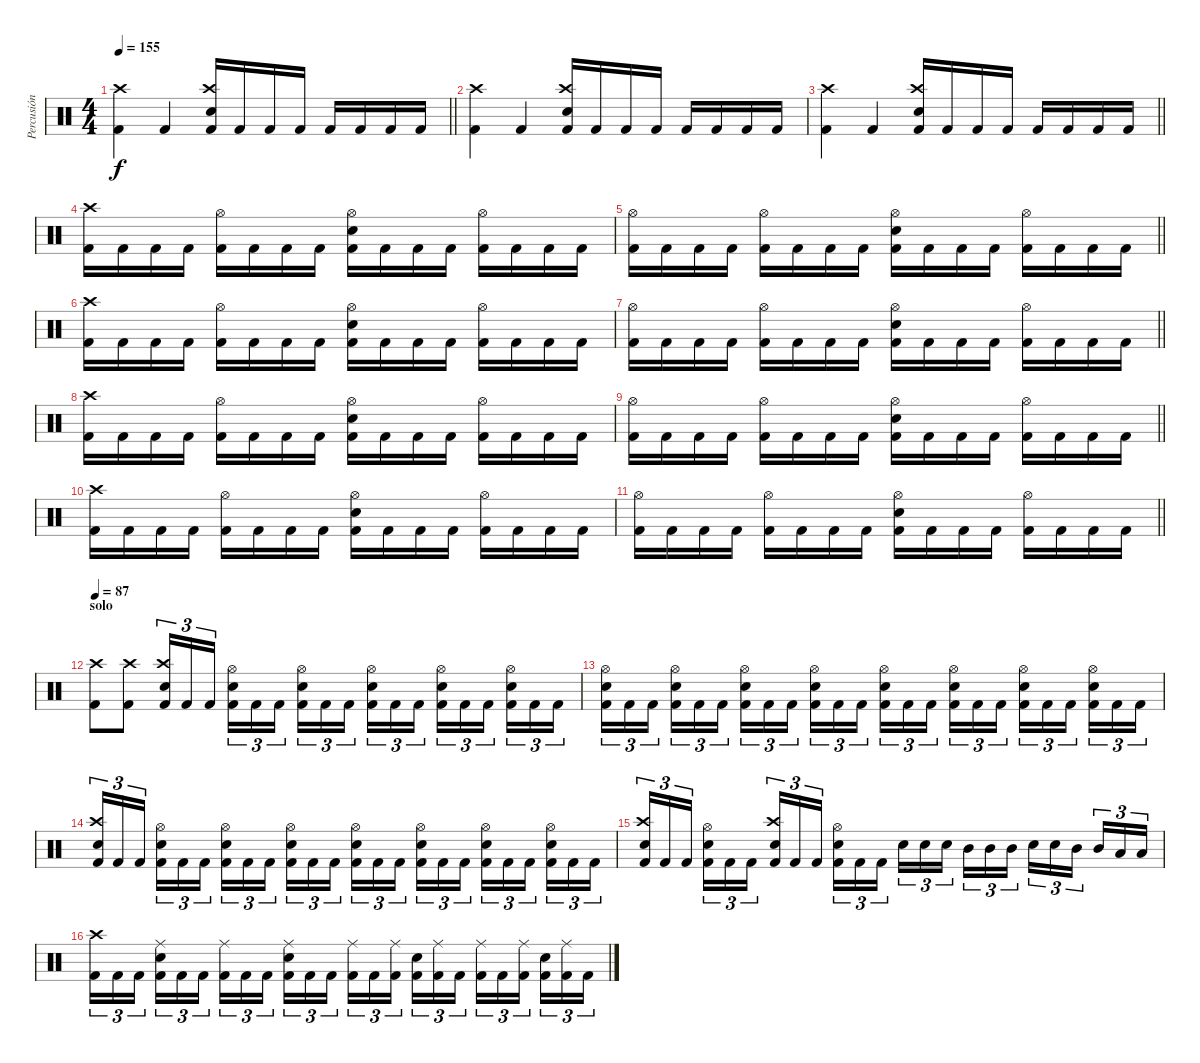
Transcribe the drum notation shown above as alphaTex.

\track ("Percusión" "Percusión") {instrument percussion}
\staff
\articulation defaults
\ts (4 4)
\tempo 155
\clef neutral
\barLineRight lightlight
\ks c
("Kick (hit) 2" "Crash high (hit)").4{dy f} "Kick (hit) 2".4 ("Kick (hit) 2" "Crash high (hit)" "Electric Snare (hit)").16 "Kick (hit) 2".16 "Kick (hit) 2".16 "Kick (hit) 2".16 "Kick (hit) 2".16 "Kick (hit) 2".16 "Kick (hit) 2".16 "Kick (hit) 2".16 |
("Kick (hit) 2" "Crash high (hit)").4 "Kick (hit) 2".4 ("Kick (hit) 2" "Crash high (hit)" "Electric Snare (hit)").16 "Kick (hit) 2".16 "Kick (hit) 2".16 "Kick (hit) 2".16 "Kick (hit) 2".16 "Kick (hit) 2".16 "Kick (hit) 2".16 "Kick (hit) 2".16 |
\barLineRight lightlight
("Kick (hit) 2" "Crash high (hit)").4 "Kick (hit) 2".4 ("Kick (hit) 2" "Crash high (hit)" "Electric Snare (hit)").16 "Kick (hit) 2".16 "Kick (hit) 2".16 "Kick (hit) 2".16 "Kick (hit) 2".16 "Kick (hit) 2".16 "Kick (hit) 2".16 "Kick (hit) 2".16 |
("Kick (hit) 2" "Crash high (hit)").16 "Kick (hit) 2".16 "Kick (hit) 2".16 "Kick (hit) 2".16 ("Kick (hit) 2" "Hi-Hat (open)").16 "Kick (hit) 2".16 "Kick (hit) 2".16 "Kick (hit) 2".16 ("Kick (hit) 2" "Hi-Hat (open)" "Electric Snare (hit)").16 "Kick (hit) 2".16 "Kick (hit) 2".16 "Kick (hit) 2".16 ("Kick (hit) 2" "Hi-Hat (open)").16 "Kick (hit) 2".16 "Kick (hit) 2".16 "Kick (hit) 2".16 |
\barLineRight lightlight
("Kick (hit) 2" "Hi-Hat (open)").16 "Kick (hit) 2".16 "Kick (hit) 2".16 "Kick (hit) 2".16 ("Kick (hit) 2" "Hi-Hat (open)").16 "Kick (hit) 2".16 "Kick (hit) 2".16 "Kick (hit) 2".16 ("Kick (hit) 2" "Hi-Hat (open)" "Electric Snare (hit)").16 "Kick (hit) 2".16 "Kick (hit) 2".16 "Kick (hit) 2".16 ("Kick (hit) 2" "Hi-Hat (open)").16 "Kick (hit) 2".16 "Kick (hit) 2".16 "Kick (hit) 2".16 |
("Kick (hit) 2" "Crash high (hit)").16 "Kick (hit) 2".16 "Kick (hit) 2".16 "Kick (hit) 2".16 ("Kick (hit) 2" "Hi-Hat (open)").16 "Kick (hit) 2".16 "Kick (hit) 2".16 "Kick (hit) 2".16 ("Kick (hit) 2" "Hi-Hat (open)" "Electric Snare (hit)").16 "Kick (hit) 2".16 "Kick (hit) 2".16 "Kick (hit) 2".16 ("Kick (hit) 2" "Hi-Hat (open)").16 "Kick (hit) 2".16 "Kick (hit) 2".16 "Kick (hit) 2".16 |
\barLineRight lightlight
("Kick (hit) 2" "Hi-Hat (open)").16 "Kick (hit) 2".16 "Kick (hit) 2".16 "Kick (hit) 2".16 ("Kick (hit) 2" "Hi-Hat (open)").16 "Kick (hit) 2".16 "Kick (hit) 2".16 "Kick (hit) 2".16 ("Kick (hit) 2" "Hi-Hat (open)" "Electric Snare (hit)").16 "Kick (hit) 2".16 "Kick (hit) 2".16 "Kick (hit) 2".16 ("Kick (hit) 2" "Hi-Hat (open)").16 "Kick (hit) 2".16 "Kick (hit) 2".16 "Kick (hit) 2".16 |
("Kick (hit) 2" "Crash high (hit)").16 "Kick (hit) 2".16 "Kick (hit) 2".16 "Kick (hit) 2".16 ("Kick (hit) 2" "Hi-Hat (open)").16 "Kick (hit) 2".16 "Kick (hit) 2".16 "Kick (hit) 2".16 ("Kick (hit) 2" "Hi-Hat (open)" "Electric Snare (hit)").16 "Kick (hit) 2".16 "Kick (hit) 2".16 "Kick (hit) 2".16 ("Kick (hit) 2" "Hi-Hat (open)").16 "Kick (hit) 2".16 "Kick (hit) 2".16 "Kick (hit) 2".16 |
\barLineRight lightlight
("Kick (hit) 2" "Hi-Hat (open)").16 "Kick (hit) 2".16 "Kick (hit) 2".16 "Kick (hit) 2".16 ("Kick (hit) 2" "Hi-Hat (open)").16 "Kick (hit) 2".16 "Kick (hit) 2".16 "Kick (hit) 2".16 ("Kick (hit) 2" "Hi-Hat (open)" "Electric Snare (hit)").16 "Kick (hit) 2".16 "Kick (hit) 2".16 "Kick (hit) 2".16 ("Kick (hit) 2" "Hi-Hat (open)").16 "Kick (hit) 2".16 "Kick (hit) 2".16 "Kick (hit) 2".16 |
("Kick (hit) 2" "Crash high (hit)").16 "Kick (hit) 2".16 "Kick (hit) 2".16 "Kick (hit) 2".16 ("Kick (hit) 2" "Hi-Hat (open)").16 "Kick (hit) 2".16 "Kick (hit) 2".16 "Kick (hit) 2".16 ("Kick (hit) 2" "Hi-Hat (open)" "Electric Snare (hit)").16 "Kick (hit) 2".16 "Kick (hit) 2".16 "Kick (hit) 2".16 ("Kick (hit) 2" "Hi-Hat (open)").16 "Kick (hit) 2".16 "Kick (hit) 2".16 "Kick (hit) 2".16 |
\barLineRight lightlight
("Kick (hit) 2" "Hi-Hat (open)").16 "Kick (hit) 2".16 "Kick (hit) 2".16 "Kick (hit) 2".16 ("Kick (hit) 2" "Hi-Hat (open)").16 "Kick (hit) 2".16 "Kick (hit) 2".16 "Kick (hit) 2".16 ("Kick (hit) 2" "Hi-Hat (open)" "Electric Snare (hit)").16 "Kick (hit) 2".16 "Kick (hit) 2".16 "Kick (hit) 2".16 ("Kick (hit) 2" "Hi-Hat (open)").16 "Kick (hit) 2".16 "Kick (hit) 2".16 "Kick (hit) 2".16 |
\section ("" "solo")
\tempo 87
("Kick (hit) 2" "Crash high (hit)").8 ("Kick (hit) 2" "Crash high (hit)").8 ("Kick (hit) 2" "Crash high (hit)" "Electric Snare (hit)").16{tu (3 2)} "Kick (hit) 2".16{tu (3 2)} "Kick (hit) 2".16{tu (3 2) beam splitsecondary} ("Kick (hit) 2" "Hi-Hat (open)" "Electric Snare (hit)").16{tu (3 2)} "Kick (hit) 2".16{tu (3 2)} "Kick (hit) 2".16{tu (3 2)} ("Kick (hit) 2" "Hi-Hat (open)" "Electric Snare (hit)").16{tu (3 2)} "Kick (hit) 2".16{tu (3 2)} "Kick (hit) 2".16{tu (3 2) beam splitsecondary} ("Kick (hit) 2" "Hi-Hat (open)" "Electric Snare (hit)").16{tu (3 2)} "Kick (hit) 2".16{tu (3 2)} "Kick (hit) 2".16{tu (3 2)} ("Kick (hit) 2" "Hi-Hat (open)" "Electric Snare (hit)").16{tu (3 2)} "Kick (hit) 2".16{tu (3 2)} "Kick (hit) 2".16{tu (3 2) beam splitsecondary} ("Kick (hit) 2" "Hi-Hat (open)" "Electric Snare (hit)").16{tu (3 2)} "Kick (hit) 2".16{tu (3 2)} "Kick (hit) 2".16{tu (3 2)} |
("Kick (hit) 2" "Hi-Hat (open)" "Electric Snare (hit)").16{tu (3 2)} "Kick (hit) 2".16{tu (3 2)} "Kick (hit) 2".16{tu (3 2) beam splitsecondary} ("Kick (hit) 2" "Hi-Hat (open)" "Electric Snare (hit)").16{tu (3 2)} "Kick (hit) 2".16{tu (3 2)} "Kick (hit) 2".16{tu (3 2)} ("Kick (hit) 2" "Hi-Hat (open)" "Electric Snare (hit)").16{tu (3 2)} "Kick (hit) 2".16{tu (3 2)} "Kick (hit) 2".16{tu (3 2) beam splitsecondary} ("Kick (hit) 2" "Hi-Hat (open)" "Electric Snare (hit)").16{tu (3 2)} "Kick (hit) 2".16{tu (3 2)} "Kick (hit) 2".16{tu (3 2)} ("Kick (hit) 2" "Hi-Hat (open)" "Electric Snare (hit)").16{tu (3 2)} "Kick (hit) 2".16{tu (3 2)} "Kick (hit) 2".16{tu (3 2) beam splitsecondary} ("Kick (hit) 2" "Hi-Hat (open)" "Electric Snare (hit)").16{tu (3 2)} "Kick (hit) 2".16{tu (3 2)} "Kick (hit) 2".16{tu (3 2)} ("Kick (hit) 2" "Hi-Hat (open)" "Electric Snare (hit)").16{tu (3 2)} "Kick (hit) 2".16{tu (3 2)} "Kick (hit) 2".16{tu (3 2) beam splitsecondary} ("Kick (hit) 2" "Hi-Hat (open)" "Electric Snare (hit)").16{tu (3 2)} "Kick (hit) 2".16{tu (3 2)} "Kick (hit) 2".16{tu (3 2)} |
("Kick (hit) 2" "Crash high (hit)" "Electric Snare (hit)").16{tu (3 2)} "Kick (hit) 2".16{tu (3 2)} "Kick (hit) 2".16{tu (3 2) beam splitsecondary} ("Kick (hit) 2" "Hi-Hat (open)" "Electric Snare (hit)").16{tu (3 2)} "Kick (hit) 2".16{tu (3 2)} "Kick (hit) 2".16{tu (3 2)} ("Kick (hit) 2" "Hi-Hat (open)" "Electric Snare (hit)").16{tu (3 2)} "Kick (hit) 2".16{tu (3 2)} "Kick (hit) 2".16{tu (3 2) beam splitsecondary} ("Kick (hit) 2" "Hi-Hat (open)" "Electric Snare (hit)").16{tu (3 2)} "Kick (hit) 2".16{tu (3 2)} "Kick (hit) 2".16{tu (3 2)} ("Kick (hit) 2" "Hi-Hat (open)" "Electric Snare (hit)").16{tu (3 2)} "Kick (hit) 2".16{tu (3 2)} "Kick (hit) 2".16{tu (3 2) beam splitsecondary} ("Kick (hit) 2" "Hi-Hat (open)" "Electric Snare (hit)").16{tu (3 2)} "Kick (hit) 2".16{tu (3 2)} "Kick (hit) 2".16{tu (3 2)} ("Kick (hit) 2" "Hi-Hat (open)" "Electric Snare (hit)").16{tu (3 2)} "Kick (hit) 2".16{tu (3 2)} "Kick (hit) 2".16{tu (3 2) beam splitsecondary} ("Kick (hit) 2" "Hi-Hat (open)" "Electric Snare (hit)").16{tu (3 2)} "Kick (hit) 2".16{tu (3 2)} "Kick (hit) 2".16{tu (3 2)} |
("Kick (hit) 2" "Crash high (hit)" "Electric Snare (hit)").16{tu (3 2)} "Kick (hit) 2".16{tu (3 2)} "Kick (hit) 2".16{tu (3 2) beam splitsecondary} ("Kick (hit) 2" "Hi-Hat (open)" "Electric Snare (hit)").16{tu (3 2)} "Kick (hit) 2".16{tu (3 2)} "Kick (hit) 2".16{tu (3 2)} ("Kick (hit) 2" "Crash high (hit)" "Electric Snare (hit)").16{tu (3 2)} "Kick (hit) 2".16{tu (3 2)} "Kick (hit) 2".16{tu (3 2) beam splitsecondary} ("Kick (hit) 2" "Hi-Hat (open)" "Electric Snare (hit)").16{tu (3 2)} "Kick (hit) 2".16{tu (3 2)} "Kick (hit) 2".16{tu (3 2)} "Snare (hit) 2".16{tu (3 2)} "Electric Snare (hit)".16{tu (3 2)} "Electric Snare (hit)".16{tu (3 2) beam splitsecondary} "Mid Tom (hit)".16{tu (3 2)} "Mid Tom (hit)".16{tu (3 2)} "Mid Tom (hit)".16{tu (3 2)} "Snare (hit) 2".16{tu (3 2)} "Electric Snare (hit)".16{tu (3 2)} "Mid Tom (hit)".16{tu (3 2) beam splitsecondary} "Mid Tom (hit)".16{tu (3 2)} "Low Tom (hit)".16{tu (3 2)} "Low Tom (hit)".16{tu (3 2)} |
("Kick (hit) 2" "Crash high (hit)").16{tu (3 2)} "Kick (hit) 2".16{tu (3 2)} "Kick (hit) 2".16{tu (3 2) beam splitsecondary} ("Kick (hit) 2" "Ride (middle)" "Electric Snare (hit)").16{tu (3 2)} "Kick (hit) 2".16{tu (3 2)} "Kick (hit) 2".16{tu (3 2)} ("Kick (hit) 2" "Ride (middle)").16{tu (3 2)} "Kick (hit) 2".16{tu (3 2)} "Kick (hit) 2".16{tu (3 2) beam splitsecondary} ("Kick (hit) 2" "Ride (middle)" "Electric Snare (hit)").16{tu (3 2)} "Kick (hit) 2".16{tu (3 2)} "Kick (hit) 2".16{tu (3 2)} ("Kick (hit) 2" "Ride (middle)").16{tu (3 2)} "Kick (hit) 2".16{tu (3 2)} ("Kick (hit) 2" "Ride (middle)").16{tu (3 2) beam splitsecondary} ("Kick (hit) 2" "Electric Snare (hit)").16{tu (3 2)} ("Kick (hit) 2" "Ride (middle)").16{tu (3 2)} "Kick (hit) 2".16{tu (3 2)} ("Kick (hit) 2" "Ride (middle)").16{tu (3 2)} "Kick (hit) 2".16{tu (3 2)} ("Kick (hit) 2" "Ride (middle)").16{tu (3 2) beam splitsecondary} ("Kick (hit) 2" "Electric Snare (hit)").16{tu (3 2)} ("Kick (hit) 2" "Ride (middle)").16{tu (3 2)} "Kick (hit) 2".16{tu (3 2)}
